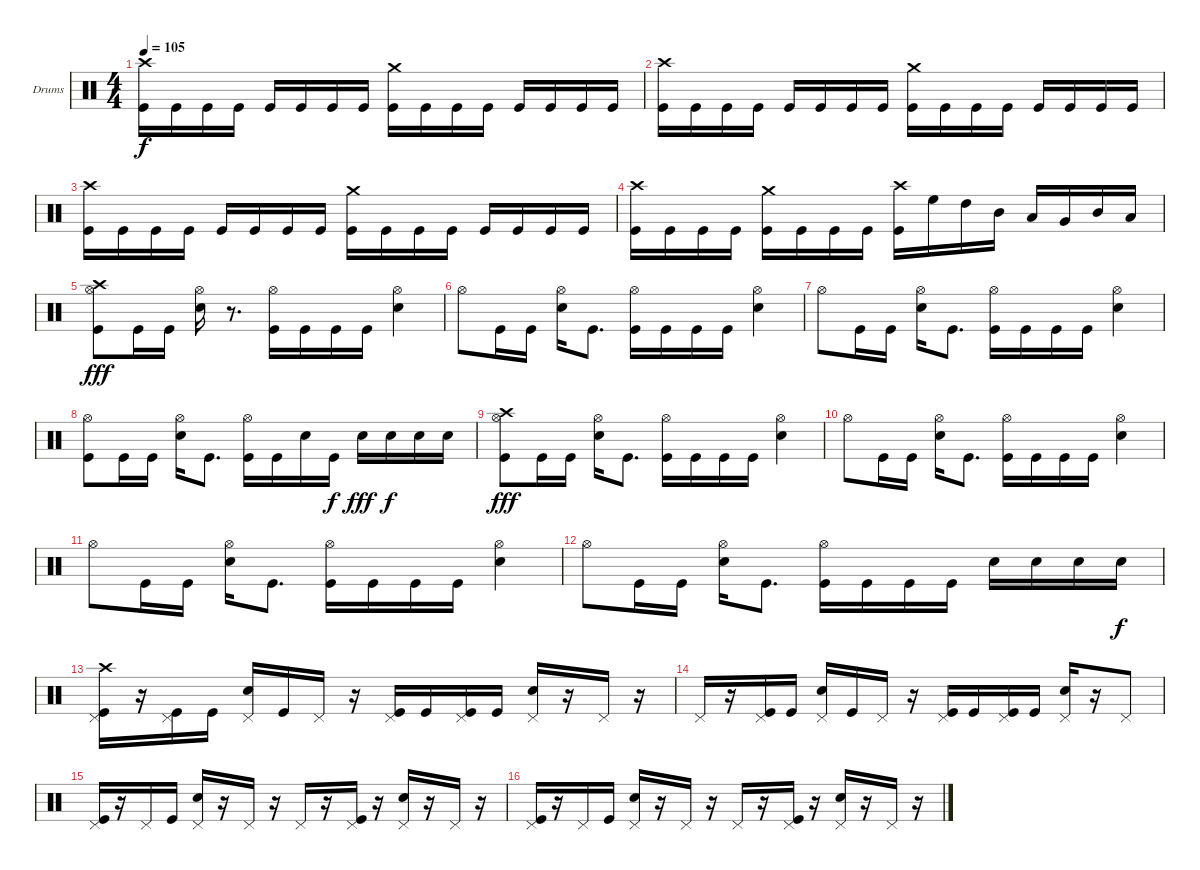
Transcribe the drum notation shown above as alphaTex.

\bracketExtendMode groupsimilarinstruments
\firstSystemTrackNameOrientation horizontal
\otherSystemsTrackNameOrientation horizontal
\track ("Drumkit (Christoph)" "Drums") {instrument percussion}
\staff {score}
\articulation defaults
\ts (4 4)
\tempo 105
\clef neutral
\ks c
("Crash high (hit)" "Kick (hit)").16{dy f} "Kick (hit)".16 "Kick (hit)".16 "Kick (hit)".16 "Kick (hit)".16 "Kick (hit)".16 "Kick (hit)".16 "Kick (hit)".16 ("Crash medium (hit)" "Kick (hit)").16 "Kick (hit)".16 "Kick (hit)".16 "Kick (hit)".16 "Kick (hit)".16 "Kick (hit)".16 "Kick (hit)".16 "Kick (hit)".16 |
("Crash high (hit)" "Kick (hit)").16 "Kick (hit)".16 "Kick (hit)".16 "Kick (hit)".16 "Kick (hit)".16 "Kick (hit)".16 "Kick (hit)".16 "Kick (hit)".16 ("Crash medium (hit)" "Kick (hit)").16 "Kick (hit)".16 "Kick (hit)".16 "Kick (hit)".16 "Kick (hit)".16 "Kick (hit)".16 "Kick (hit)".16 "Kick (hit)".16 |
("Crash high (hit)" "Kick (hit)").16 "Kick (hit)".16 "Kick (hit)".16 "Kick (hit)".16 "Kick (hit)".16 "Kick (hit)".16 "Kick (hit)".16 "Kick (hit)".16 ("Crash medium (hit)" "Kick (hit)").16 "Kick (hit)".16 "Kick (hit)".16 "Kick (hit)".16 "Kick (hit)".16 "Kick (hit)".16 "Kick (hit)".16 "Kick (hit)".16 |
("Crash high (hit)" "Kick (hit)").16 "Kick (hit)".16 "Kick (hit)".16 "Kick (hit)".16 ("Crash medium (hit)" "Kick (hit)").16 "Kick (hit)".16 "Kick (hit)".16 "Kick (hit)".16 ("Crash high (hit)" "Kick (hit)").16 "High Floor Tom (hit)".16 "High Tom (hit)".16 "Mid Tom (hit)".16 "Low Tom (hit)".16 "Very Low Tom (hit)".16 "Mid Tom (hit)".16 "Low Tom (hit)".16 |
("Crash high (hit)" "Kick (hit)" "Hi-Hat (open)").8{dy fff} "Kick (hit)".16 "Kick (hit)".16 ("Hi-Hat (open)" "Snare (hit) 2").16 r.8{d} ("Hi-Hat (open)" "Kick (hit)").16 "Kick (hit)".16 "Kick (hit)".16 "Kick (hit)".16 ("Hi-Hat (open)" "Snare (hit) 2").4 |
"Hi-Hat (open)".8 "Kick (hit)".16 "Kick (hit)".16 ("Hi-Hat (open)" "Snare (hit) 2").16 "Kick (hit)".8{d} ("Hi-Hat (open)" "Kick (hit)").16 "Kick (hit)".16 "Kick (hit)".16 "Kick (hit)".16 ("Hi-Hat (open)" "Snare (hit) 2").4 |
"Hi-Hat (open)".8 "Kick (hit)".16 "Kick (hit)".16 ("Hi-Hat (open)" "Snare (hit) 2").16 "Kick (hit)".8{d} ("Hi-Hat (open)" "Kick (hit)").16 "Kick (hit)".16 "Kick (hit)".16 "Kick (hit)".16 ("Hi-Hat (open)" "Snare (hit) 2").4 |
("Kick (hit)" "Hi-Hat (open)").8 "Kick (hit)".16 "Kick (hit)".16 ("Hi-Hat (open)" "Snare (hit) 2").16 "Kick (hit)".8{d} ("Hi-Hat (open)" "Kick (hit)").16 "Kick (hit)".16 "Snare (hit) 2".16 "Kick (hit)".16{dy f} "Snare (hit) 2".16{dy fff} "Snare (hit) 2".16{dy f} "Snare (hit) 2".16 "Snare (hit) 2".16 |
("Crash high (hit)" "Kick (hit)" "Hi-Hat (open)").8{dy fff} "Kick (hit)".16 "Kick (hit)".16 ("Hi-Hat (open)" "Snare (hit) 2").16 "Kick (hit)".8{d} ("Hi-Hat (open)" "Kick (hit)").16 "Kick (hit)".16 "Kick (hit)".16 "Kick (hit)".16 ("Hi-Hat (open)" "Snare (hit) 2").4 |
"Hi-Hat (open)".8 "Kick (hit)".16 "Kick (hit)".16 ("Hi-Hat (open)" "Snare (hit) 2").16 "Kick (hit)".8{d} ("Hi-Hat (open)" "Kick (hit)").16 "Kick (hit)".16 "Kick (hit)".16 "Kick (hit)".16 ("Hi-Hat (open)" "Snare (hit) 2").4 |
"Hi-Hat (open)".8 "Kick (hit)".16 "Kick (hit)".16 ("Hi-Hat (open)" "Snare (hit) 2").16 "Kick (hit)".8{d} ("Hi-Hat (open)" "Kick (hit)").16 "Kick (hit)".16 "Kick (hit)".16 "Kick (hit)".16 ("Hi-Hat (open)" "Snare (hit) 2").4 |
"Hi-Hat (open)".8 "Kick (hit)".16 "Kick (hit)".16 ("Hi-Hat (open)" "Snare (hit) 2").16 "Kick (hit)".8{d} ("Hi-Hat (open)" "Kick (hit)").16 "Kick (hit)".16 "Kick (hit)".16 "Kick (hit)".16 "Snare (hit) 2".16 "Snare (hit) 2".16 "Snare (hit) 2".16 "Snare (hit) 2".16{dy f} |
("Crash high (hit)" "Kick (hit)" "Pedal Hi-Hat (hit)").16 r.16 ("Pedal Hi-Hat (hit)" "Kick (hit)").16 "Kick (hit)".16 ("Pedal Hi-Hat (hit)" "Snare (hit) 2").16 "Kick (hit)".16 "Pedal Hi-Hat (hit)".16 r.16 ("Pedal Hi-Hat (hit)" "Kick (hit)").16 "Kick (hit)".16 ("Pedal Hi-Hat (hit)" "Kick (hit)").16 "Kick (hit)".16 ("Pedal Hi-Hat (hit)" "Snare (hit) 2").16 r.16 "Pedal Hi-Hat (hit)".16 r.16 |
"Pedal Hi-Hat (hit)".16 r.16 ("Pedal Hi-Hat (hit)" "Kick (hit)").16 "Kick (hit)".16 ("Pedal Hi-Hat (hit)" "Snare (hit) 2").16 "Kick (hit)".16 "Pedal Hi-Hat (hit)".16 r.16 ("Pedal Hi-Hat (hit)" "Kick (hit)").16 "Kick (hit)".16 ("Pedal Hi-Hat (hit)" "Kick (hit)").16 "Kick (hit)".16 ("Pedal Hi-Hat (hit)" "Snare (hit) 2").16 r.16 "Pedal Hi-Hat (hit)".8 |
("Pedal Hi-Hat (hit)" "Kick (hit)").16 r.16 "Pedal Hi-Hat (hit)".16 "Kick (hit)".16 ("Pedal Hi-Hat (hit)" "Snare (hit) 2").16 r.16 "Pedal Hi-Hat (hit)".16 r.16 "Pedal Hi-Hat (hit)".16 r.16 ("Pedal Hi-Hat (hit)" "Kick (hit)").16 r.16 ("Pedal Hi-Hat (hit)" "Snare (hit) 2").16 r.16 "Pedal Hi-Hat (hit)".16 r.16 |
("Pedal Hi-Hat (hit)" "Kick (hit)").16 r.16 "Pedal Hi-Hat (hit)".16 "Kick (hit)".16 ("Pedal Hi-Hat (hit)" "Snare (hit) 2").16 r.16 "Pedal Hi-Hat (hit)".16 r.16 "Pedal Hi-Hat (hit)".16 r.16 ("Pedal Hi-Hat (hit)" "Kick (hit)").16 r.16 ("Pedal Hi-Hat (hit)" "Snare (hit) 2").16 r.16 "Pedal Hi-Hat (hit)".16 r.16
